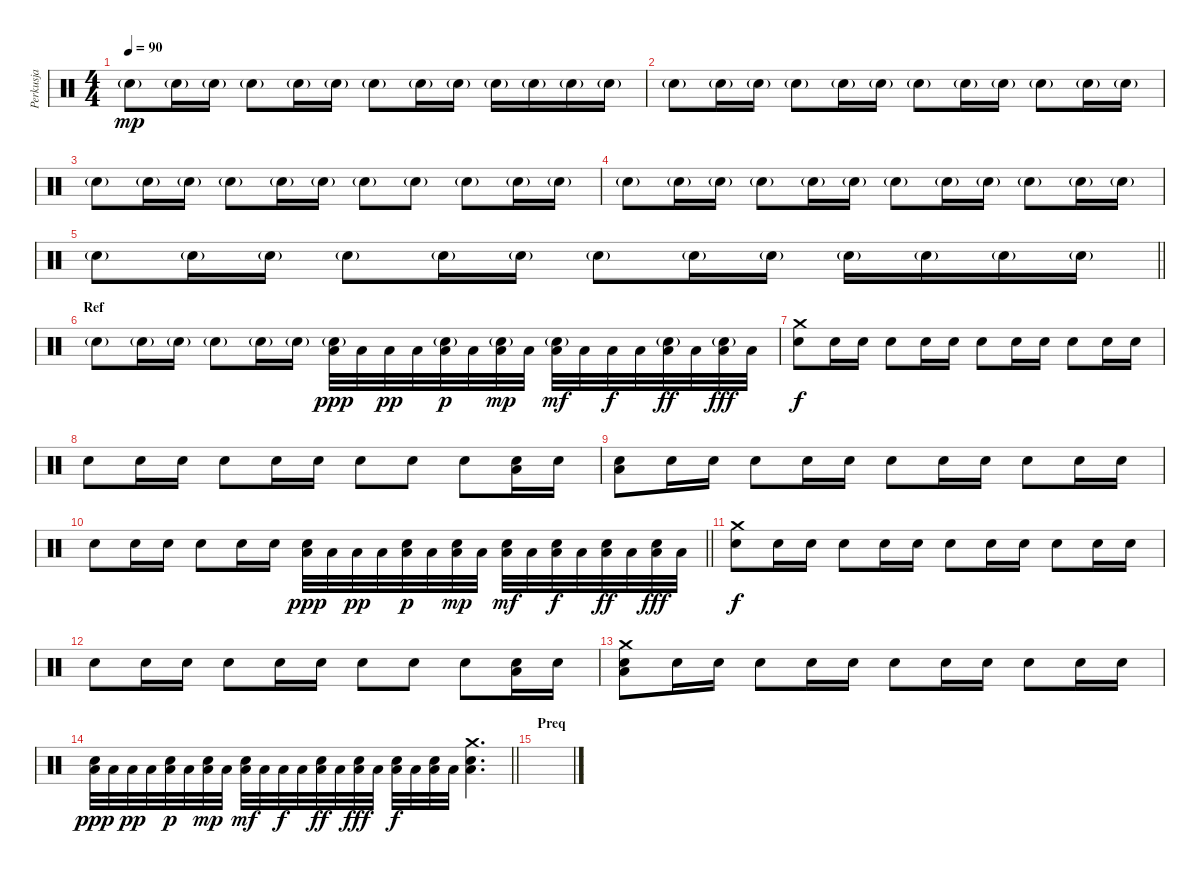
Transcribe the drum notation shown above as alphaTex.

\track ("Perkusja" "Perkusja") {instrument percussion}
\staff {score}
\articulation defaults
\ts (4 4)
\tempo 90
\clef neutral
\ks c "Electric Snare (hit)"{g}.8{dy mp} "Electric Snare (hit)"{g}.16 "Electric Snare (hit)"{g}.16 "Electric Snare (hit)"{g}.8 "Electric Snare (hit)"{g}.16 "Electric Snare (hit)"{g}.16 "Electric Snare (hit)"{g}.8 "Electric Snare (hit)"{g}.16 "Electric Snare (hit)"{g}.16 "Electric Snare (hit)"{g}.16 "Electric Snare (hit)"{g}.16 "Electric Snare (hit)"{g}.16 "Electric Snare (hit)"{g}.16
|
"Electric Snare (hit)"{g}.8 "Electric Snare (hit)"{g}.16 "Electric Snare (hit)"{g}.16 "Electric Snare (hit)"{g}.8 "Electric Snare (hit)"{g}.16 "Electric Snare (hit)"{g}.16 "Electric Snare (hit)"{g}.8 "Electric Snare (hit)"{g}.16 "Electric Snare (hit)"{g}.16 "Electric Snare (hit)"{g}.8 "Electric Snare (hit)"{g}.16 "Electric Snare (hit)"{g}.16 |
"Electric Snare (hit)"{g}.8 "Electric Snare (hit)"{g}.16 "Electric Snare (hit)"{g}.16 "Electric Snare (hit)"{g}.8 "Electric Snare (hit)"{g}.16 "Electric Snare (hit)"{g}.16 "Electric Snare (hit)"{g}.8 "Electric Snare (hit)"{g}.8 "Electric Snare (hit)"{g}.8 "Electric Snare (hit)"{g}.16 "Electric Snare (hit)"{g}.16 |
"Electric Snare (hit)"{g}.8 "Electric Snare (hit)"{g}.16 "Electric Snare (hit)"{g}.16 "Electric Snare (hit)"{g}.8 "Electric Snare (hit)"{g}.16 "Electric Snare (hit)"{g}.16 "Electric Snare (hit)"{g}.8 "Electric Snare (hit)"{g}.16 "Electric Snare (hit)"{g}.16 "Electric Snare (hit)"{g}.8 "Electric Snare (hit)"{g}.16 "Electric Snare (hit)"{g}.16 |
\barLineRight lightlight "Electric Snare (hit)"{g}.8 "Electric Snare (hit)"{g}.16 "Electric Snare (hit)"{g}.16 "Electric Snare (hit)"{g}.8 "Electric Snare (hit)"{g}.16 "Electric Snare (hit)"{g}.16 "Electric Snare (hit)"{g}.8 "Electric Snare (hit)"{g}.16 "Electric Snare (hit)"{g}.16 "Electric Snare (hit)"{g}.16 "Electric Snare (hit)"{g}.16 "Electric Snare (hit)"{g}.16 "Electric Snare (hit)"{g}.16
|
\section ("" "Ref")
"Electric Snare (hit)"{g}.8 "Electric Snare (hit)"{g}.16 "Electric Snare (hit)"{g}.16 "Electric Snare (hit)"{g}.8 "Electric Snare (hit)"{g}.16 "Electric Snare (hit)"{g}.16 ("Electric Snare (hit)"{g} "Low Floor Tom (hit)").32{dy ppp} "Low Floor Tom (hit)".32 "Low Floor Tom (hit)".32{dy pp} "Low Floor Tom (hit)".32 ("Electric Snare (hit)"{g} "Low Floor Tom (hit)").32{dy p} "Low Floor Tom (hit)".32 ("Electric Snare (hit)"{g} "Low Floor Tom (hit)").32{dy mp} "Low Floor Tom (hit)".32 ("Electric Snare (hit)"{g} "Low Floor Tom (hit)").32{dy mf} "Low Floor Tom (hit)".32 "Low Floor Tom (hit)".32{dy f} "Low Floor Tom (hit)".32 ("Electric Snare (hit)"{g} "Low Floor Tom (hit)").32{dy ff} "Low Floor Tom (hit)".32 ("Electric Snare (hit)"{g} "Low Floor Tom (hit)").32{dy fff} "Low Floor Tom (hit)".32 |
("Crash medium (hit)" "Electric Snare (hit)").8{dy f} "Electric Snare (hit)".16 "Electric Snare (hit)".16 "Electric Snare (hit)".8 "Electric Snare (hit)".16 "Electric Snare (hit)".16 "Electric Snare (hit)".8 "Electric Snare (hit)".16 "Electric Snare (hit)".16 "Electric Snare (hit)".8 "Electric Snare (hit)".16 "Electric Snare (hit)".16 |
"Electric Snare (hit)".8 "Electric Snare (hit)".16 "Electric Snare (hit)".16 "Electric Snare (hit)".8 "Electric Snare (hit)".16 "Electric Snare (hit)".16 "Electric Snare (hit)".8 "Electric Snare (hit)".8 "Electric Snare (hit)".8 ("Electric Snare (hit)" "Low Floor Tom (hit)").16 "Electric Snare (hit)".16 |
("Electric Snare (hit)" "Low Floor Tom (hit)").8 "Electric Snare (hit)".16 "Electric Snare (hit)".16 "Electric Snare (hit)".8 "Electric Snare (hit)".16 "Electric Snare (hit)".16 "Electric Snare (hit)".8 "Electric Snare (hit)".16 "Electric Snare (hit)".16 "Electric Snare (hit)".8 "Electric Snare (hit)".16 "Electric Snare (hit)".16 |
\barLineRight lightlight "Electric Snare (hit)".8 "Electric Snare (hit)".16 "Electric Snare (hit)".16 "Electric Snare (hit)".8 "Electric Snare (hit)".16 "Electric Snare (hit)".16
("Electric Snare (hit)" "Low Floor Tom (hit)").32{dy ppp} "Low Floor Tom (hit)".32 "Low Floor Tom (hit)".32{dy pp} "Low Floor Tom (hit)".32 ("Electric Snare (hit)" "Low Floor Tom (hit)").32{dy p} "Low Floor Tom (hit)".32 ("Electric Snare (hit)" "Low Floor Tom (hit)").32{dy mp} "Low Floor Tom (hit)".32 ("Electric Snare (hit)" "Low Floor Tom (hit)").32{dy mf} "Low Floor Tom (hit)".32 ("Electric Snare (hit)" "Low Floor Tom (hit)").32{dy f} "Low Floor Tom (hit)".32 ("Electric Snare (hit)" "Low Floor Tom (hit)").32{dy ff} "Low Floor Tom (hit)".32 ("Electric Snare (hit)" "Low Floor Tom (hit)").32{dy fff} "Low Floor Tom (hit)".32 |
("Crash medium (hit)" "Electric Snare (hit)").8{dy f} "Electric Snare (hit)".16 "Electric Snare (hit)".16 "Electric Snare (hit)".8 "Electric Snare (hit)".16 "Electric Snare (hit)".16 "Electric Snare (hit)".8 "Electric Snare (hit)".16 "Electric Snare (hit)".16 "Electric Snare (hit)".8 "Electric Snare (hit)".16 "Electric Snare (hit)".16 |
"Electric Snare (hit)".8 "Electric Snare (hit)".16 "Electric Snare (hit)".16 "Electric Snare (hit)".8 "Electric Snare (hit)".16 "Electric Snare (hit)".16 "Electric Snare (hit)".8 "Electric Snare (hit)".8 "Electric Snare (hit)".8 ("Electric Snare (hit)" "Low Floor Tom (hit)").16 "Electric Snare (hit)".16 |
("Crash medium (hit)" "Electric Snare (hit)" "Low Floor Tom (hit)").8 "Electric Snare (hit)".16 "Electric Snare (hit)".16 "Electric Snare (hit)".8 "Electric Snare (hit)".16 "Electric Snare (hit)".16 "Electric Snare (hit)".8 "Electric Snare (hit)".16 "Electric Snare (hit)".16 "Electric Snare (hit)".8 "Electric Snare (hit)".16 "Electric Snare (hit)".16 |
\barLineRight lightlight
("Electric Snare (hit)" "Low Floor Tom (hit)").32{dy ppp} "Low Floor Tom (hit)".32 "Low Floor Tom (hit)".32{dy pp} "Low Floor Tom (hit)".32 ("Electric Snare (hit)" "Low Floor Tom (hit)").32{dy p} "Low Floor Tom (hit)".32 ("Electric Snare (hit)" "Low Floor Tom (hit)").32{dy mp} "Low Floor Tom (hit)".32 ("Electric Snare (hit)" "Low Floor Tom (hit)").32{dy mf} "Low Floor Tom (hit)".32 "Low Floor Tom (hit)".32{dy f} "Low Floor Tom (hit)".32 ("Electric Snare (hit)" "Low Floor Tom (hit)").32{dy ff} "Low Floor Tom (hit)".32 ("Electric Snare (hit)" "Low Floor Tom (hit)").32{dy fff} "Low Floor Tom (hit)".32 ("Electric Snare (hit)" "Low Floor Tom (hit)").32{dy f} "Low Floor Tom (hit)".32 ("Electric Snare (hit)" "Low Floor Tom (hit)").32 "Low Floor Tom (hit)".32 ("Crash medium (hit)" "Electric Snare (hit)" "Low Floor Tom (hit)").4{d} |
\section ("" "Preq")
